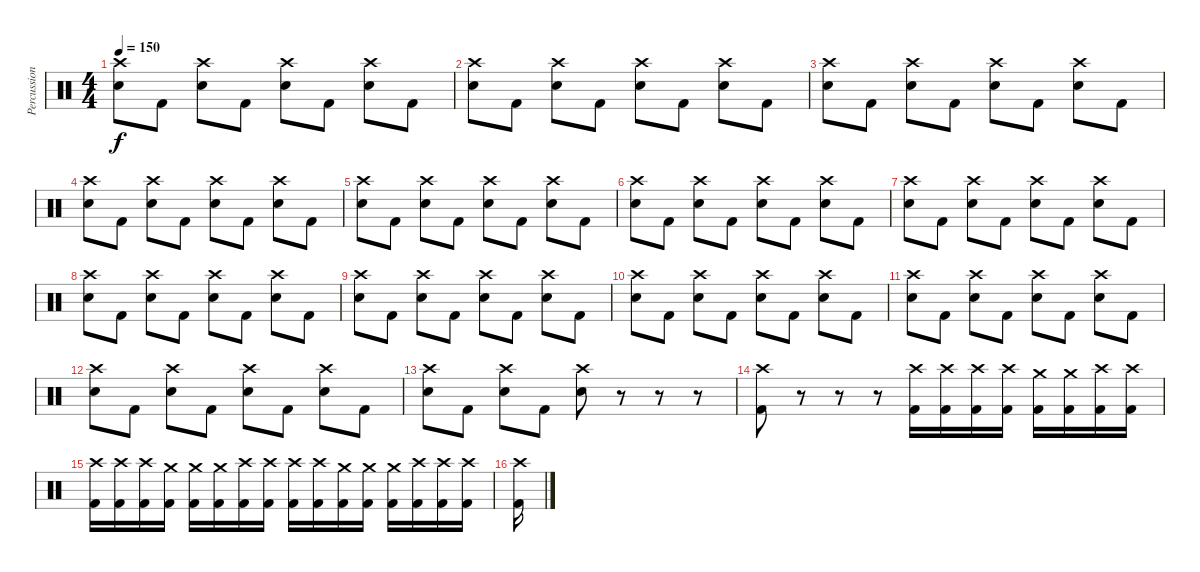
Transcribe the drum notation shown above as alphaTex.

\track ("Percussion" "Percussion") {instrument percussion}
\staff {score}
\articulation defaults
\ts (4 4)
\tempo 150
\clef neutral
\ks c
("Crash high (hit)" "Snare (hit) 2").8{dy f} "Kick (hit) 2".8 ("Crash high (hit)" "Snare (hit) 2").8 "Kick (hit) 2".8 ("Crash high (hit)" "Snare (hit) 2").8 "Kick (hit) 2".8 ("Crash high (hit)" "Snare (hit) 2").8 "Kick (hit) 2".8 |
("Crash high (hit)" "Snare (hit) 2").8 "Kick (hit) 2".8 ("Crash high (hit)" "Snare (hit) 2").8 "Kick (hit) 2".8 ("Crash high (hit)" "Snare (hit) 2").8 "Kick (hit) 2".8 ("Crash high (hit)" "Snare (hit) 2").8 "Kick (hit) 2".8 |
("Crash high (hit)" "Snare (hit) 2").8 "Kick (hit) 2".8 ("Crash high (hit)" "Snare (hit) 2").8 "Kick (hit) 2".8 ("Crash high (hit)" "Snare (hit) 2").8 "Kick (hit) 2".8 ("Crash high (hit)" "Snare (hit) 2").8 "Kick (hit) 2".8 |
("Crash high (hit)" "Snare (hit) 2").8 "Kick (hit) 2".8 ("Crash high (hit)" "Snare (hit) 2").8 "Kick (hit) 2".8 ("Crash high (hit)" "Snare (hit) 2").8 "Kick (hit) 2".8 ("Crash high (hit)" "Snare (hit) 2").8 "Kick (hit) 2".8 |
("Crash high (hit)" "Snare (hit) 2").8 "Kick (hit) 2".8 ("Crash high (hit)" "Snare (hit) 2").8 "Kick (hit) 2".8 ("Crash high (hit)" "Snare (hit) 2").8 "Kick (hit) 2".8 ("Crash high (hit)" "Snare (hit) 2").8 "Kick (hit) 2".8 |
("Crash high (hit)" "Snare (hit) 2").8 "Kick (hit) 2".8 ("Crash high (hit)" "Snare (hit) 2").8 "Kick (hit) 2".8 ("Crash high (hit)" "Snare (hit) 2").8 "Kick (hit) 2".8 ("Crash high (hit)" "Snare (hit) 2").8 "Kick (hit) 2".8 |
("Crash high (hit)" "Snare (hit) 2").8 "Kick (hit) 2".8 ("Crash high (hit)" "Snare (hit) 2").8 "Kick (hit) 2".8 ("Crash high (hit)" "Snare (hit) 2").8 "Kick (hit) 2".8 ("Crash high (hit)" "Snare (hit) 2").8 "Kick (hit) 2".8 |
("Crash high (hit)" "Snare (hit) 2").8 "Kick (hit) 2".8 ("Crash high (hit)" "Snare (hit) 2").8 "Kick (hit) 2".8 ("Crash high (hit)" "Snare (hit) 2").8 "Kick (hit) 2".8 ("Crash high (hit)" "Snare (hit) 2").8 "Kick (hit) 2".8 |
("Crash high (hit)" "Snare (hit) 2").8 "Kick (hit) 2".8 ("Crash high (hit)" "Snare (hit) 2").8 "Kick (hit) 2".8 ("Crash high (hit)" "Snare (hit) 2").8 "Kick (hit) 2".8 ("Crash high (hit)" "Snare (hit) 2").8 "Kick (hit) 2".8 |
("Crash high (hit)" "Snare (hit) 2").8 "Kick (hit) 2".8 ("Crash high (hit)" "Snare (hit) 2").8 "Kick (hit) 2".8 ("Crash high (hit)" "Snare (hit) 2").8 "Kick (hit) 2".8 ("Crash high (hit)" "Snare (hit) 2").8 "Kick (hit) 2".8 |
("Crash high (hit)" "Snare (hit) 2").8 "Kick (hit) 2".8 ("Crash high (hit)" "Snare (hit) 2").8 "Kick (hit) 2".8 ("Crash high (hit)" "Snare (hit) 2").8 "Kick (hit) 2".8 ("Crash high (hit)" "Snare (hit) 2").8 "Kick (hit) 2".8 |
("Crash high (hit)" "Snare (hit) 2").8 "Kick (hit) 2".8 ("Crash high (hit)" "Snare (hit) 2").8 "Kick (hit) 2".8 ("Crash high (hit)" "Snare (hit) 2").8 "Kick (hit) 2".8 ("Crash high (hit)" "Snare (hit) 2").8 "Kick (hit) 2".8 |
("Crash high (hit)" "Snare (hit) 2").8 "Kick (hit) 2".8 ("Crash high (hit)" "Snare (hit) 2").8 "Kick (hit) 2".8 ("Crash high (hit)" "Snare (hit) 2").8 r.8 r.8 r.8 |
("Crash high (hit)" "Kick (hit) 2").8 r.8 r.8 r.8 ("Crash high (hit)" "Kick (hit) 2").16 ("Crash high (hit)" "Kick (hit) 2").16 ("Crash high (hit)" "Kick (hit) 2").16 ("Crash high (hit)" "Kick (hit) 2").16 ("Crash medium (hit)" "Kick (hit) 2").16 ("Crash medium (hit)" "Kick (hit) 2").16 ("Crash high (hit)" "Kick (hit) 2").16 ("Crash high (hit)" "Kick (hit) 2").16 |
("Crash high (hit)" "Kick (hit) 2").16 ("Crash high (hit)" "Kick (hit) 2").16 ("Crash high (hit)" "Kick (hit) 2").16 ("Crash medium (hit)" "Kick (hit) 2").16 ("Crash medium (hit)" "Kick (hit) 2").16 ("Crash medium (hit)" "Kick (hit) 2").16 ("Crash high (hit)" "Kick (hit) 2").16 ("Crash high (hit)" "Kick (hit) 2").16 ("Crash high (hit)" "Kick (hit) 2").16 ("Crash high (hit)" "Kick (hit) 2").16 ("Crash medium (hit)" "Kick (hit) 2").16 ("Crash medium (hit)" "Kick (hit) 2").16 ("Crash medium (hit)" "Kick (hit) 2").16 ("Crash high (hit)" "Kick (hit) 2").16 ("Crash high (hit)" "Kick (hit) 2").16 ("Crash high (hit)" "Kick (hit) 2").16 |
("Crash high (hit)" "Kick (hit) 2").16
